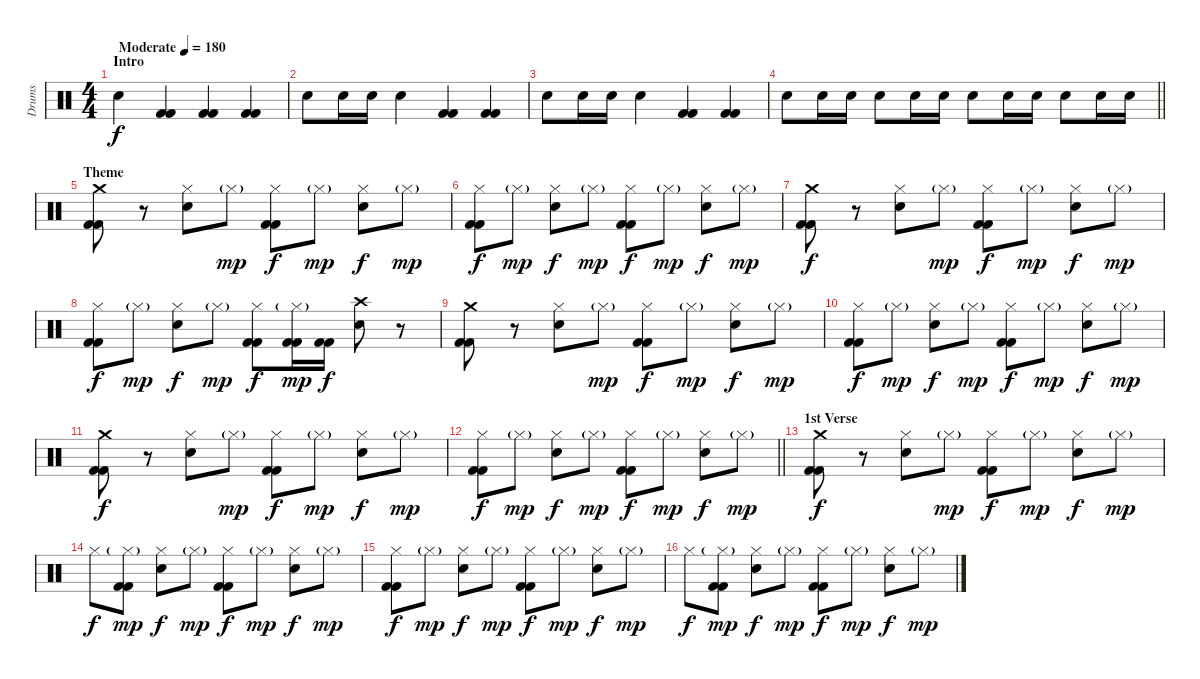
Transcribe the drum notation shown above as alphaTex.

\track ("Drums" "Drums") {instrument percussion}
\staff {score}
\articulation defaults
\ts (4 4)
\section ("" "Intro")
\tempo (180 "Moderate")
\clef neutral
\ks c "Snare (hit) 2".4{dy f}
("Kick (hit) 2" "Kick (hit) 2").4 ("Kick (hit) 2" "Kick (hit) 2").4 ("Kick (hit) 2" "Kick (hit) 2").4 |
"Snare (hit) 2".8 "Snare (hit) 2".16 "Snare (hit) 2".16 "Snare (hit) 2".4 ("Kick (hit) 2" "Kick (hit) 2").4 ("Kick (hit) 2" "Kick (hit) 2").4 |
"Snare (hit) 2".8 "Snare (hit) 2".16 "Snare (hit) 2".16 "Snare (hit) 2".4 ("Kick (hit) 2" "Kick (hit) 2").4 ("Kick (hit) 2" "Kick (hit) 2").4 |
\barLineRight lightlight "Snare (hit) 2".8 "Snare (hit) 2".16 "Snare (hit) 2".16 "Snare (hit) 2".8 "Snare (hit) 2".16 "Snare (hit) 2".16 "Snare (hit) 2".8 "Snare (hit) 2".16 "Snare (hit) 2".16 "Snare (hit) 2".8 "Snare (hit) 2".16 "Snare (hit) 2".16
|
\section ("" "Theme")
("Crash medium (hit)" "Kick (hit) 2" "Kick (hit) 2").8 r.8 ("Hi-Hat (closed)" "Snare (hit) 2").8 "Hi-Hat (closed)"{g}.8{dy mp} ("Hi-Hat (closed)" "Kick (hit) 2" "Kick (hit) 2").8{dy f} "Hi-Hat (closed)"{g}.8{dy mp} ("Hi-Hat (closed)" "Snare (hit) 2").8{dy f} "Hi-Hat (closed)"{g}.8{dy mp} |
("Hi-Hat (closed)" "Kick (hit) 2" "Kick (hit) 2").8{dy f} "Hi-Hat (closed)"{g}.8{dy mp} ("Hi-Hat (closed)" "Snare (hit) 2").8{dy f} "Hi-Hat (closed)"{g}.8{dy mp} ("Hi-Hat (closed)" "Kick (hit) 2" "Kick (hit) 2").8{dy f} "Hi-Hat (closed)"{g}.8{dy mp} ("Hi-Hat (closed)" "Snare (hit) 2").8{dy f} "Hi-Hat (closed)"{g}.8{dy mp} |
("Crash medium (hit)" "Kick (hit) 2" "Kick (hit) 2").8{dy f} r.8 ("Hi-Hat (closed)" "Snare (hit) 2").8 "Hi-Hat (closed)"{g}.8{dy mp} ("Hi-Hat (closed)" "Kick (hit) 2" "Kick (hit) 2").8{dy f} "Hi-Hat (closed)"{g}.8{dy mp} ("Hi-Hat (closed)" "Snare (hit) 2").8{dy f} "Hi-Hat (closed)"{g}.8{dy mp} |
("Hi-Hat (closed)" "Kick (hit) 2" "Kick (hit) 2").8{dy f} "Hi-Hat (closed)"{g}.8{dy mp} ("Hi-Hat (closed)" "Snare (hit) 2").8{dy f} "Hi-Hat (closed)"{g}.8{dy mp} ("Hi-Hat (closed)" "Kick (hit) 2" "Kick (hit) 2").8{dy f} ("Hi-Hat (closed)"{g} "Kick (hit) 2" "Kick (hit) 2").16{dy mp} ("Kick (hit) 2" "Kick (hit) 2").16{dy f} ("Crash high (hit)" "Snare (hit) 2").8 r.8 |
("Crash medium (hit)" "Kick (hit) 2" "Kick (hit) 2").8 r.8 ("Hi-Hat (closed)" "Snare (hit) 2").8 "Hi-Hat (closed)"{g}.8{dy mp} ("Hi-Hat (closed)" "Kick (hit) 2" "Kick (hit) 2").8{dy f} "Hi-Hat (closed)"{g}.8{dy mp} ("Hi-Hat (closed)" "Snare (hit) 2").8{dy f} "Hi-Hat (closed)"{g}.8{dy mp} |
("Hi-Hat (closed)" "Kick (hit) 2" "Kick (hit) 2").8{dy f} "Hi-Hat (closed)"{g}.8{dy mp} ("Hi-Hat (closed)" "Snare (hit) 2").8{dy f} "Hi-Hat (closed)"{g}.8{dy mp} ("Hi-Hat (closed)" "Kick (hit) 2" "Kick (hit) 2").8{dy f} "Hi-Hat (closed)"{g}.8{dy mp} ("Hi-Hat (closed)" "Snare (hit) 2").8{dy f} "Hi-Hat (closed)"{g}.8{dy mp} |
("Crash medium (hit)" "Kick (hit) 2" "Kick (hit) 2").8{dy f} r.8 ("Hi-Hat (closed)" "Snare (hit) 2").8 "Hi-Hat (closed)"{g}.8{dy mp} ("Hi-Hat (closed)" "Kick (hit) 2" "Kick (hit) 2").8{dy f} "Hi-Hat (closed)"{g}.8{dy mp} ("Hi-Hat (closed)" "Snare (hit) 2").8{dy f} "Hi-Hat (closed)"{g}.8{dy mp} |
\barLineRight lightlight
("Hi-Hat (closed)" "Kick (hit) 2" "Kick (hit) 2").8{dy f} "Hi-Hat (closed)"{g}.8{dy mp} ("Hi-Hat (closed)" "Snare (hit) 2").8{dy f} "Hi-Hat (closed)"{g}.8{dy mp} ("Hi-Hat (closed)" "Kick (hit) 2" "Kick (hit) 2").8{dy f} "Hi-Hat (closed)"{g}.8{dy mp} ("Hi-Hat (closed)" "Snare (hit) 2").8{dy f} "Hi-Hat (closed)"{g}.8{dy mp} |
\section ("" "1st Verse")
("Crash medium (hit)" "Kick (hit) 2" "Kick (hit) 2").8{dy f} r.8 ("Hi-Hat (closed)" "Snare (hit) 2").8 "Hi-Hat (closed)"{g}.8{dy mp} ("Hi-Hat (closed)" "Kick (hit) 2" "Kick (hit) 2").8{dy f} "Hi-Hat (closed)"{g}.8{dy mp} ("Hi-Hat (closed)" "Snare (hit) 2").8{dy f} "Hi-Hat (closed)"{g}.8{dy mp} |
"Hi-Hat (closed)".8{dy f} ("Hi-Hat (closed)"{g} "Kick (hit) 2" "Kick (hit) 2").8{dy mp} ("Hi-Hat (closed)" "Snare (hit) 2").8{dy f} "Hi-Hat (closed)"{g}.8{dy mp} ("Hi-Hat (closed)" "Kick (hit) 2" "Kick (hit) 2").8{dy f} "Hi-Hat (closed)"{g}.8{dy mp} ("Hi-Hat (closed)" "Snare (hit) 2").8{dy f} "Hi-Hat (closed)"{g}.8{dy mp} |
("Hi-Hat (closed)" "Kick (hit) 2" "Kick (hit) 2").8{dy f} "Hi-Hat (closed)"{g}.8{dy mp} ("Hi-Hat (closed)" "Snare (hit) 2").8{dy f} "Hi-Hat (closed)"{g}.8{dy mp} ("Hi-Hat (closed)" "Kick (hit) 2" "Kick (hit) 2").8{dy f} "Hi-Hat (closed)"{g}.8{dy mp} ("Hi-Hat (closed)" "Snare (hit) 2").8{dy f} "Hi-Hat (closed)"{g}.8{dy mp} |
"Hi-Hat (closed)".8{dy f} ("Hi-Hat (closed)"{g} "Kick (hit) 2" "Kick (hit) 2").8{dy mp} ("Hi-Hat (closed)" "Snare (hit) 2").8{dy f} "Hi-Hat (closed)"{g}.8{dy mp} ("Hi-Hat (closed)" "Kick (hit) 2" "Kick (hit) 2").8{dy f} "Hi-Hat (closed)"{g}.8{dy mp} ("Hi-Hat (closed)" "Snare (hit) 2").8{dy f} "Hi-Hat (closed)"{g}.8{dy mp}
